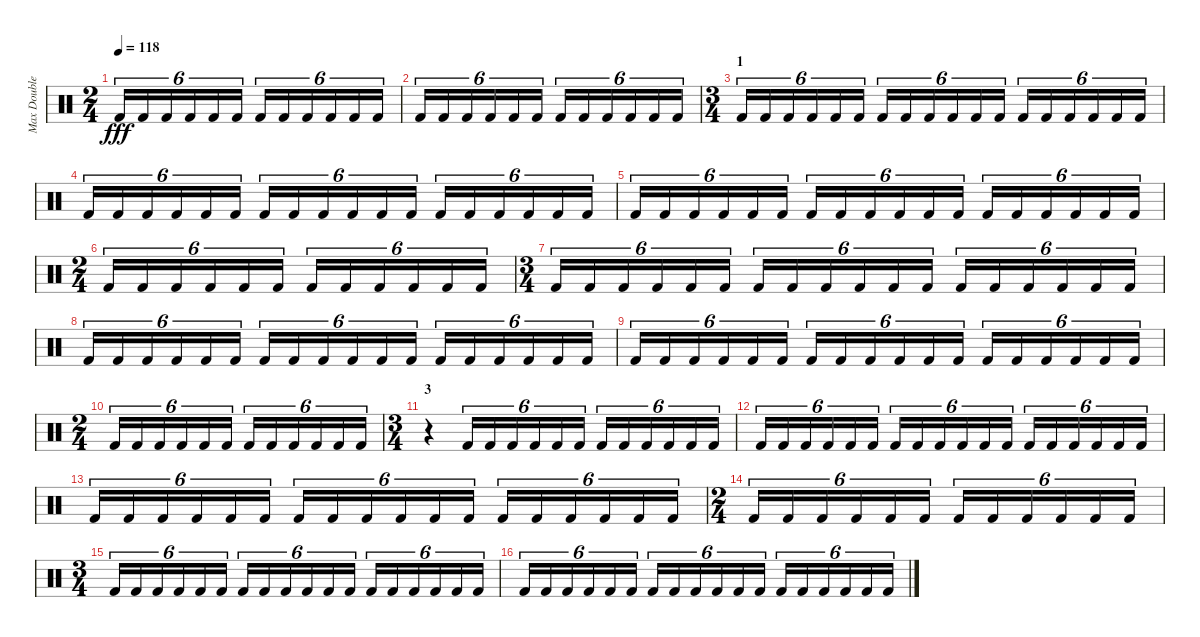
\track ("Max Double Pedal" "Max Double") {instrument percussion}
\staff {score}
\articulation defaults
\ts (2 4)
\tempo 118
\clef neutral
\ks c "Kick (hit) 2".16{tu (6 4) dy fff} "Kick (hit) 2".16{tu (6 4)} "Kick (hit) 2".16{tu (6 4)} "Kick (hit) 2".16{tu (6 4)} "Kick (hit) 2".16{tu (6 4)} "Kick (hit) 2".16{tu (6 4)} "Kick (hit) 2".16{tu (6 4)} "Kick (hit) 2".16{tu (6 4)} "Kick (hit) 2".16{tu (6 4)} "Kick (hit) 2".16{tu (6 4)} "Kick (hit) 2".16{tu (6 4)} "Kick (hit) 2".16{tu (6 4)}
|
"Kick (hit) 2".16{tu (6 4)} "Kick (hit) 2".16{tu (6 4)} "Kick (hit) 2".16{tu (6 4)} "Kick (hit) 2".16{tu (6 4)} "Kick (hit) 2".16{tu (6 4)} "Kick (hit) 2".16{tu (6 4)} "Kick (hit) 2".16{tu (6 4)} "Kick (hit) 2".16{tu (6 4)} "Kick (hit) 2".16{tu (6 4)} "Kick (hit) 2".16{tu (6 4)} "Kick (hit) 2".16{tu (6 4)} "Kick (hit) 2".16{tu (6 4)} |
\ts (3 4)
\section ("" "1")
"Kick (hit) 2".16{tu (6 4)} "Kick (hit) 2".16{tu (6 4)} "Kick (hit) 2".16{tu (6 4)} "Kick (hit) 2".16{tu (6 4)} "Kick (hit) 2".16{tu (6 4)} "Kick (hit) 2".16{tu (6 4)} "Kick (hit) 2".16{tu (6 4)} "Kick (hit) 2".16{tu (6 4)} "Kick (hit) 2".16{tu (6 4)} "Kick (hit) 2".16{tu (6 4)} "Kick (hit) 2".16{tu (6 4)} "Kick (hit) 2".16{tu (6 4)} "Kick (hit) 2".16{tu (6 4)} "Kick (hit) 2".16{tu (6 4)} "Kick (hit) 2".16{tu (6 4)} "Kick (hit) 2".16{tu (6 4)} "Kick (hit) 2".16{tu (6 4)} "Kick (hit) 2".16{tu (6 4)} |
"Kick (hit) 2".16{tu (6 4)} "Kick (hit) 2".16{tu (6 4)} "Kick (hit) 2".16{tu (6 4)} "Kick (hit) 2".16{tu (6 4)} "Kick (hit) 2".16{tu (6 4)} "Kick (hit) 2".16{tu (6 4)} "Kick (hit) 2".16{tu (6 4)} "Kick (hit) 2".16{tu (6 4)} "Kick (hit) 2".16{tu (6 4)} "Kick (hit) 2".16{tu (6 4)} "Kick (hit) 2".16{tu (6 4)} "Kick (hit) 2".16{tu (6 4)} "Kick (hit) 2".16{tu (6 4)} "Kick (hit) 2".16{tu (6 4)} "Kick (hit) 2".16{tu (6 4)} "Kick (hit) 2".16{tu (6 4)} "Kick (hit) 2".16{tu (6 4)} "Kick (hit) 2".16{tu (6 4)} |
"Kick (hit) 2".16{tu (6 4)} "Kick (hit) 2".16{tu (6 4)} "Kick (hit) 2".16{tu (6 4)} "Kick (hit) 2".16{tu (6 4)} "Kick (hit) 2".16{tu (6 4)} "Kick (hit) 2".16{tu (6 4)} "Kick (hit) 2".16{tu (6 4)} "Kick (hit) 2".16{tu (6 4)} "Kick (hit) 2".16{tu (6 4)} "Kick (hit) 2".16{tu (6 4)} "Kick (hit) 2".16{tu (6 4)} "Kick (hit) 2".16{tu (6 4)} "Kick (hit) 2".16{tu (6 4)} "Kick (hit) 2".16{tu (6 4)} "Kick (hit) 2".16{tu (6 4)} "Kick (hit) 2".16{tu (6 4)} "Kick (hit) 2".16{tu (6 4)} "Kick (hit) 2".16{tu (6 4)} |
\ts (2 4)
"Kick (hit) 2".16{tu (6 4)} "Kick (hit) 2".16{tu (6 4)} "Kick (hit) 2".16{tu (6 4)} "Kick (hit) 2".16{tu (6 4)} "Kick (hit) 2".16{tu (6 4)} "Kick (hit) 2".16{tu (6 4)} "Kick (hit) 2".16{tu (6 4)} "Kick (hit) 2".16{tu (6 4)} "Kick (hit) 2".16{tu (6 4)} "Kick (hit) 2".16{tu (6 4)} "Kick (hit) 2".16{tu (6 4)} "Kick (hit) 2".16{tu (6 4)} |
\ts (3 4)
"Kick (hit) 2".16{tu (6 4)} "Kick (hit) 2".16{tu (6 4)} "Kick (hit) 2".16{tu (6 4)} "Kick (hit) 2".16{tu (6 4)} "Kick (hit) 2".16{tu (6 4)} "Kick (hit) 2".16{tu (6 4)} "Kick (hit) 2".16{tu (6 4)} "Kick (hit) 2".16{tu (6 4)} "Kick (hit) 2".16{tu (6 4)} "Kick (hit) 2".16{tu (6 4)} "Kick (hit) 2".16{tu (6 4)} "Kick (hit) 2".16{tu (6 4)} "Kick (hit) 2".16{tu (6 4)} "Kick (hit) 2".16{tu (6 4)} "Kick (hit) 2".16{tu (6 4)} "Kick (hit) 2".16{tu (6 4)} "Kick (hit) 2".16{tu (6 4)} "Kick (hit) 2".16{tu (6 4)} |
"Kick (hit) 2".16{tu (6 4)} "Kick (hit) 2".16{tu (6 4)} "Kick (hit) 2".16{tu (6 4)} "Kick (hit) 2".16{tu (6 4)} "Kick (hit) 2".16{tu (6 4)} "Kick (hit) 2".16{tu (6 4)} "Kick (hit) 2".16{tu (6 4)} "Kick (hit) 2".16{tu (6 4)} "Kick (hit) 2".16{tu (6 4)} "Kick (hit) 2".16{tu (6 4)} "Kick (hit) 2".16{tu (6 4)} "Kick (hit) 2".16{tu (6 4)} "Kick (hit) 2".16{tu (6 4)} "Kick (hit) 2".16{tu (6 4)} "Kick (hit) 2".16{tu (6 4)} "Kick (hit) 2".16{tu (6 4)} "Kick (hit) 2".16{tu (6 4)} "Kick (hit) 2".16{tu (6 4)} |
"Kick (hit) 2".16{tu (6 4)} "Kick (hit) 2".16{tu (6 4)} "Kick (hit) 2".16{tu (6 4)} "Kick (hit) 2".16{tu (6 4)} "Kick (hit) 2".16{tu (6 4)} "Kick (hit) 2".16{tu (6 4)} "Kick (hit) 2".16{tu (6 4)} "Kick (hit) 2".16{tu (6 4)} "Kick (hit) 2".16{tu (6 4)} "Kick (hit) 2".16{tu (6 4)} "Kick (hit) 2".16{tu (6 4)} "Kick (hit) 2".16{tu (6 4)} "Kick (hit) 2".16{tu (6 4)} "Kick (hit) 2".16{tu (6 4)} "Kick (hit) 2".16{tu (6 4)} "Kick (hit) 2".16{tu (6 4)} "Kick (hit) 2".16{tu (6 4)} "Kick (hit) 2".16{tu (6 4)} |
\ts (2 4)
"Kick (hit) 2".16{tu (6 4)} "Kick (hit) 2".16{tu (6 4)} "Kick (hit) 2".16{tu (6 4)} "Kick (hit) 2".16{tu (6 4)} "Kick (hit) 2".16{tu (6 4)} "Kick (hit) 2".16{tu (6 4)} "Kick (hit) 2".16{tu (6 4)} "Kick (hit) 2".16{tu (6 4)} "Kick (hit) 2".16{tu (6 4)} "Kick (hit) 2".16{tu (6 4)} "Kick (hit) 2".16{tu (6 4)} "Kick (hit) 2".16{tu (6 4)} |
\ts (3 4)
\section ("" "3")
r.4 "Kick (hit) 2".16{tu (6 4)} "Kick (hit) 2".16{tu (6 4)} "Kick (hit) 2".16{tu (6 4)} "Kick (hit) 2".16{tu (6 4)} "Kick (hit) 2".16{tu (6 4)} "Kick (hit) 2".16{tu (6 4)} "Kick (hit) 2".16{tu (6 4)} "Kick (hit) 2".16{tu (6 4)} "Kick (hit) 2".16{tu (6 4)} "Kick (hit) 2".16{tu (6 4)} "Kick (hit) 2".16{tu (6 4)} "Kick (hit) 2".16{tu (6 4)} |
"Kick (hit) 2".16{tu (6 4)} "Kick (hit) 2".16{tu (6 4)} "Kick (hit) 2".16{tu (6 4)} "Kick (hit) 2".16{tu (6 4)} "Kick (hit) 2".16{tu (6 4)} "Kick (hit) 2".16{tu (6 4)} "Kick (hit) 2".16{tu (6 4)} "Kick (hit) 2".16{tu (6 4)} "Kick (hit) 2".16{tu (6 4)} "Kick (hit) 2".16{tu (6 4)} "Kick (hit) 2".16{tu (6 4)} "Kick (hit) 2".16{tu (6 4)} "Kick (hit) 2".16{tu (6 4)} "Kick (hit) 2".16{tu (6 4)} "Kick (hit) 2".16{tu (6 4)} "Kick (hit) 2".16{tu (6 4)} "Kick (hit) 2".16{tu (6 4)} "Kick (hit) 2".16{tu (6 4)} |
"Kick (hit) 2".16{tu (6 4)} "Kick (hit) 2".16{tu (6 4)} "Kick (hit) 2".16{tu (6 4)} "Kick (hit) 2".16{tu (6 4)} "Kick (hit) 2".16{tu (6 4)} "Kick (hit) 2".16{tu (6 4)} "Kick (hit) 2".16{tu (6 4)} "Kick (hit) 2".16{tu (6 4)} "Kick (hit) 2".16{tu (6 4)} "Kick (hit) 2".16{tu (6 4)} "Kick (hit) 2".16{tu (6 4)} "Kick (hit) 2".16{tu (6 4)} "Kick (hit) 2".16{tu (6 4)} "Kick (hit) 2".16{tu (6 4)} "Kick (hit) 2".16{tu (6 4)} "Kick (hit) 2".16{tu (6 4)} "Kick (hit) 2".16{tu (6 4)} "Kick (hit) 2".16{tu (6 4)} |
\ts (2 4)
"Kick (hit) 2".16{tu (6 4)} "Kick (hit) 2".16{tu (6 4)} "Kick (hit) 2".16{tu (6 4)} "Kick (hit) 2".16{tu (6 4)} "Kick (hit) 2".16{tu (6 4)} "Kick (hit) 2".16{tu (6 4)} "Kick (hit) 2".16{tu (6 4)} "Kick (hit) 2".16{tu (6 4)} "Kick (hit) 2".16{tu (6 4)} "Kick (hit) 2".16{tu (6 4)} "Kick (hit) 2".16{tu (6 4)} "Kick (hit) 2".16{tu (6 4)} |
\ts (3 4)
"Kick (hit) 2".16{tu (6 4)} "Kick (hit) 2".16{tu (6 4)} "Kick (hit) 2".16{tu (6 4)} "Kick (hit) 2".16{tu (6 4)} "Kick (hit) 2".16{tu (6 4)} "Kick (hit) 2".16{tu (6 4)} "Kick (hit) 2".16{tu (6 4)} "Kick (hit) 2".16{tu (6 4)} "Kick (hit) 2".16{tu (6 4)} "Kick (hit) 2".16{tu (6 4)} "Kick (hit) 2".16{tu (6 4)} "Kick (hit) 2".16{tu (6 4)} "Kick (hit) 2".16{tu (6 4)} "Kick (hit) 2".16{tu (6 4)} "Kick (hit) 2".16{tu (6 4)} "Kick (hit) 2".16{tu (6 4)} "Kick (hit) 2".16{tu (6 4)} "Kick (hit) 2".16{tu (6 4)} |
"Kick (hit) 2".16{tu (6 4)} "Kick (hit) 2".16{tu (6 4)} "Kick (hit) 2".16{tu (6 4)} "Kick (hit) 2".16{tu (6 4)} "Kick (hit) 2".16{tu (6 4)} "Kick (hit) 2".16{tu (6 4)} "Kick (hit) 2".16{tu (6 4)} "Kick (hit) 2".16{tu (6 4)} "Kick (hit) 2".16{tu (6 4)} "Kick (hit) 2".16{tu (6 4)} "Kick (hit) 2".16{tu (6 4)} "Kick (hit) 2".16{tu (6 4)} "Kick (hit) 2".16{tu (6 4)} "Kick (hit) 2".16{tu (6 4)} "Kick (hit) 2".16{tu (6 4)} "Kick (hit) 2".16{tu (6 4)} "Kick (hit) 2".16{tu (6 4)} "Kick (hit) 2".16{tu (6 4)}
